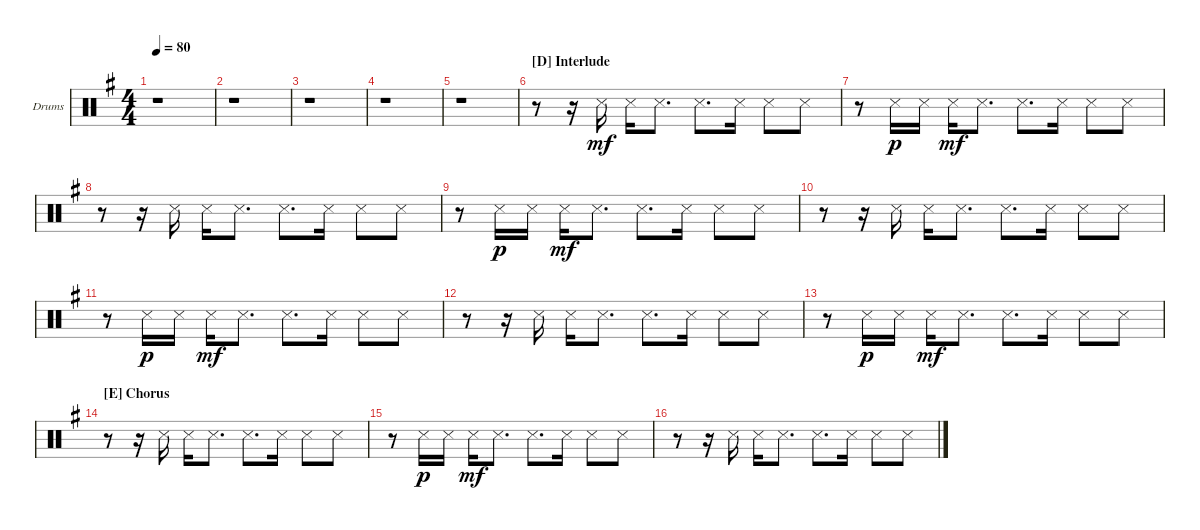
\defaultSystemsLayout 4
\bracketExtendMode groupsimilarinstruments
\firstSystemTrackNameOrientation horizontal
\otherSystemsTrackNameOrientation horizontal
\chordDiagramsInScore
\track ("Side Stick OD" "Drums") {instrument percussion}
\staff {score}
\articulation defaults
\ts (4 4)
\tempo 80
\clef neutral
\ks g
r.1{dy mf} |
r.1 |
r.1 |
r.1 |
r.1 |
\section ("D" "Interlude")
r.8 r.16 "Snare (side stick) 3".16 "Snare (side stick) 3".16 "Snare (side stick) 3".8{d} "Snare (side stick) 3".8{d} "Snare (side stick) 3".16 "Snare (side stick) 3".8 "Snare (side stick) 3".8 |
r.8 "Snare (side stick) 3".16{dy p} "Snare (side stick) 3".16 "Snare (side stick) 3".16{dy mf} "Snare (side stick) 3".8{d} "Snare (side stick) 3".8{d} "Snare (side stick) 3".16 "Snare (side stick) 3".8 "Snare (side stick) 3".8 |
r.8 r.16 "Snare (side stick) 3".16 "Snare (side stick) 3".16 "Snare (side stick) 3".8{d} "Snare (side stick) 3".8{d} "Snare (side stick) 3".16 "Snare (side stick) 3".8 "Snare (side stick) 3".8 |
r.8 "Snare (side stick) 3".16{dy p} "Snare (side stick) 3".16 "Snare (side stick) 3".16{dy mf} "Snare (side stick) 3".8{d} "Snare (side stick) 3".8{d} "Snare (side stick) 3".16 "Snare (side stick) 3".8 "Snare (side stick) 3".8 |
r.8 r.16 "Snare (side stick) 3".16 "Snare (side stick) 3".16 "Snare (side stick) 3".8{d} "Snare (side stick) 3".8{d} "Snare (side stick) 3".16 "Snare (side stick) 3".8 "Snare (side stick) 3".8 |
r.8 "Snare (side stick) 3".16{dy p} "Snare (side stick) 3".16 "Snare (side stick) 3".16{dy mf} "Snare (side stick) 3".8{d} "Snare (side stick) 3".8{d} "Snare (side stick) 3".16 "Snare (side stick) 3".8 "Snare (side stick) 3".8 |
r.8 r.16 "Snare (side stick) 3".16 "Snare (side stick) 3".16 "Snare (side stick) 3".8{d} "Snare (side stick) 3".8{d} "Snare (side stick) 3".16 "Snare (side stick) 3".8 "Snare (side stick) 3".8 |
r.8 "Snare (side stick) 3".16{dy p} "Snare (side stick) 3".16 "Snare (side stick) 3".16{dy mf} "Snare (side stick) 3".8{d} "Snare (side stick) 3".8{d} "Snare (side stick) 3".16 "Snare (side stick) 3".8 "Snare (side stick) 3".8 |
\section ("E" "Chorus")
r.8 r.16 "Snare (side stick) 3".16 "Snare (side stick) 3".16 "Snare (side stick) 3".8{d} "Snare (side stick) 3".8{d} "Snare (side stick) 3".16 "Snare (side stick) 3".8 "Snare (side stick) 3".8 |
r.8 "Snare (side stick) 3".16{dy p} "Snare (side stick) 3".16 "Snare (side stick) 3".16{dy mf} "Snare (side stick) 3".8{d} "Snare (side stick) 3".8{d} "Snare (side stick) 3".16 "Snare (side stick) 3".8 "Snare (side stick) 3".8 |
r.8 r.16 "Snare (side stick) 3".16 "Snare (side stick) 3".16 "Snare (side stick) 3".8{d} "Snare (side stick) 3".8{d} "Snare (side stick) 3".16 "Snare (side stick) 3".8 "Snare (side stick) 3".8
